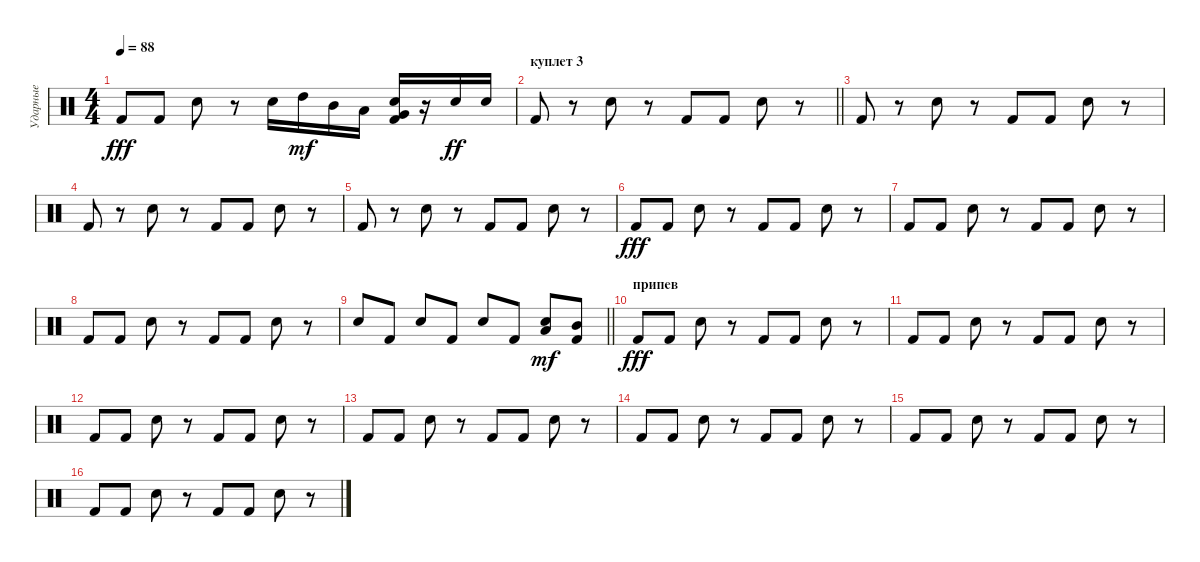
\track ("Ударные" "Ударные") {instrument percussion}
\staff {score}
\articulation defaults
\ts (4 4)
\tempo 88
\clef neutral
\ks c "Kick (hit) 2".8{dy fff} "Kick (hit) 2".8 "Electric Snare (hit)".8
r.8 "Electric Snare (hit)".16 "High Tom (hit)".16{dy mf} "Mid Tom (hit)".16 "Low Tom (hit)".16 ("Very Low Tom (hit)" "Electric Snare (hit)" "Kick (hit) 2").16 r.16 "Electric Snare (hit)".16{dy ff} "Electric Snare (hit)".16 |
\section ("" "куплет 3")
\barLineRight lightlight "Kick (hit) 2".8
r.8 "Electric Snare (hit)".8 r.8 "Kick (hit) 2".8 "Kick (hit) 2".8 "Electric Snare (hit)".8 r.8 |
"Kick (hit) 2".8 r.8 "Electric Snare (hit)".8 r.8 "Kick (hit) 2".8 "Kick (hit) 2".8 "Electric Snare (hit)".8 r.8 |
"Kick (hit) 2".8 r.8 "Electric Snare (hit)".8 r.8 "Kick (hit) 2".8 "Kick (hit) 2".8 "Electric Snare (hit)".8 r.8 |
"Kick (hit) 2".8 r.8 "Electric Snare (hit)".8 r.8 "Kick (hit) 2".8 "Kick (hit) 2".8 "Electric Snare (hit)".8 r.8 |
"Kick (hit) 2".8{dy fff} "Kick (hit) 2".8 "Electric Snare (hit)".8 r.8 "Kick (hit) 2".8 "Kick (hit) 2".8 "Electric Snare (hit)".8 r.8 |
"Kick (hit) 2".8 "Kick (hit) 2".8 "Electric Snare (hit)".8 r.8 "Kick (hit) 2".8 "Kick (hit) 2".8 "Electric Snare (hit)".8 r.8 |
"Kick (hit) 2".8 "Kick (hit) 2".8 "Electric Snare (hit)".8 r.8 "Kick (hit) 2".8 "Kick (hit) 2".8 "Electric Snare (hit)".8 r.8 |
\barLineRight lightlight "Electric Snare (hit)".8 "Kick (hit) 2".8 "Electric Snare (hit)".8 "Kick (hit) 2".8 "Electric Snare (hit)".8 "Kick (hit) 2".8
("Electric Snare (hit)" "Low Tom (hit)").8{dy mf} ("Kick (hit) 2" "Mid Tom (hit)").8 |
\section ("" "припев")
"Kick (hit) 2".8{dy fff} "Kick (hit) 2".8 "Electric Snare (hit)".8 r.8 "Kick (hit) 2".8 "Kick (hit) 2".8 "Electric Snare (hit)".8 r.8 |
"Kick (hit) 2".8 "Kick (hit) 2".8 "Electric Snare (hit)".8 r.8 "Kick (hit) 2".8 "Kick (hit) 2".8 "Electric Snare (hit)".8 r.8 |
"Kick (hit) 2".8 "Kick (hit) 2".8 "Electric Snare (hit)".8 r.8 "Kick (hit) 2".8 "Kick (hit) 2".8 "Electric Snare (hit)".8 r.8 |
"Kick (hit) 2".8 "Kick (hit) 2".8 "Electric Snare (hit)".8 r.8 "Kick (hit) 2".8 "Kick (hit) 2".8 "Electric Snare (hit)".8 r.8 |
"Kick (hit) 2".8 "Kick (hit) 2".8 "Electric Snare (hit)".8 r.8 "Kick (hit) 2".8 "Kick (hit) 2".8 "Electric Snare (hit)".8 r.8 |
"Kick (hit) 2".8 "Kick (hit) 2".8 "Electric Snare (hit)".8 r.8 "Kick (hit) 2".8 "Kick (hit) 2".8 "Electric Snare (hit)".8 r.8 |
"Kick (hit) 2".8 "Kick (hit) 2".8 "Electric Snare (hit)".8 r.8 "Kick (hit) 2".8 "Kick (hit) 2".8 "Electric Snare (hit)".8 r.8
